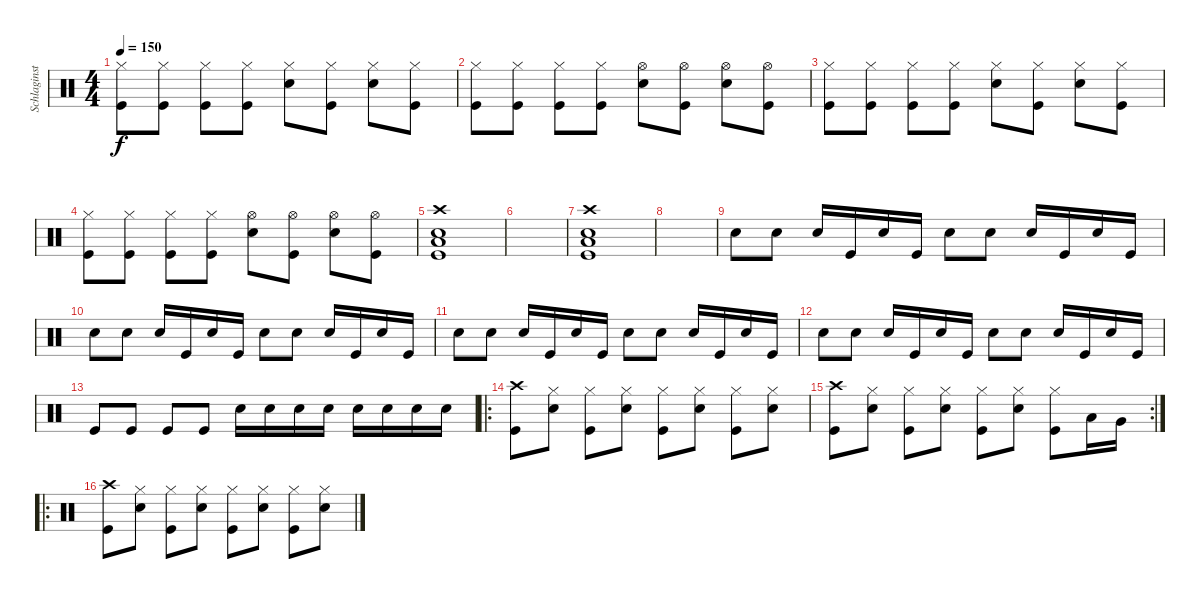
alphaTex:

\track ("Schlaginstrumente - Auswahl" "Schlaginst") {instrument percussion}
\staff {score}
\articulation defaults
\ts (4 4)
\tempo 150
\clef neutral
\ks c
("Hi-Hat (closed)" "Kick (hit)").8{dy f} ("Hi-Hat (closed)" "Kick (hit)").8 ("Hi-Hat (closed)" "Kick (hit)").8 ("Hi-Hat (closed)" "Kick (hit)").8 ("Hi-Hat (closed)" "Electric Snare (hit)").8 ("Hi-Hat (closed)" "Kick (hit)").8 ("Hi-Hat (closed)" "Electric Snare (hit)").8 ("Hi-Hat (closed)" "Kick (hit)").8 |
("Hi-Hat (closed)" "Kick (hit)").8 ("Hi-Hat (closed)" "Kick (hit)").8 ("Hi-Hat (closed)" "Kick (hit)").8 ("Hi-Hat (closed)" "Kick (hit)").8 ("Hi-Hat (open)" "Electric Snare (hit)").8 ("Hi-Hat (open)" "Kick (hit)").8 ("Hi-Hat (open)" "Electric Snare (hit)").8 ("Hi-Hat (open)" "Kick (hit)").8 |
("Hi-Hat (closed)" "Kick (hit)").8 ("Hi-Hat (closed)" "Kick (hit)").8 ("Hi-Hat (closed)" "Kick (hit)").8 ("Hi-Hat (closed)" "Kick (hit)").8 ("Hi-Hat (closed)" "Electric Snare (hit)").8 ("Hi-Hat (closed)" "Kick (hit)").8 ("Hi-Hat (closed)" "Electric Snare (hit)").8 ("Hi-Hat (closed)" "Kick (hit)").8 |
("Hi-Hat (closed)" "Kick (hit)").8 ("Hi-Hat (closed)" "Kick (hit)").8 ("Hi-Hat (closed)" "Kick (hit)").8 ("Hi-Hat (closed)" "Kick (hit)").8 ("Hi-Hat (open)" "Electric Snare (hit)").8 ("Hi-Hat (open)" "Kick (hit)").8 ("Hi-Hat (open)" "Electric Snare (hit)").8 ("Hi-Hat (open)" "Kick (hit)").8 |
("Crash high (hit)" "Low Floor Tom (hit)" "Electric Snare (hit)" "Kick (hit)").1 |
|
("Crash high (hit)" "Low Floor Tom (hit)" "Electric Snare (hit)" "Kick (hit)").1 |
|
"Electric Snare (hit)".8 "Electric Snare (hit)".8 "Electric Snare (hit)".16 "Kick (hit)".16 "Electric Snare (hit)".16 "Kick (hit)".16 "Electric Snare (hit)".8 "Electric Snare (hit)".8 "Electric Snare (hit)".16 "Kick (hit)".16 "Electric Snare (hit)".16 "Kick (hit)".16 |
"Electric Snare (hit)".8 "Electric Snare (hit)".8 "Electric Snare (hit)".16 "Kick (hit)".16 "Electric Snare (hit)".16 "Kick (hit)".16 "Electric Snare (hit)".8 "Electric Snare (hit)".8 "Electric Snare (hit)".16 "Kick (hit)".16 "Electric Snare (hit)".16 "Kick (hit)".16 |
"Electric Snare (hit)".8 "Electric Snare (hit)".8 "Electric Snare (hit)".16 "Kick (hit)".16 "Electric Snare (hit)".16 "Kick (hit)".16 "Electric Snare (hit)".8 "Electric Snare (hit)".8 "Electric Snare (hit)".16 "Kick (hit)".16 "Electric Snare (hit)".16 "Kick (hit)".16 |
"Electric Snare (hit)".8 "Electric Snare (hit)".8 "Electric Snare (hit)".16 "Kick (hit)".16 "Electric Snare (hit)".16 "Kick (hit)".16 "Electric Snare (hit)".8 "Electric Snare (hit)".8 "Electric Snare (hit)".16 "Kick (hit)".16 "Electric Snare (hit)".16 "Kick (hit)".16 |
"Kick (hit)".8 "Kick (hit)".8 "Kick (hit)".8 "Kick (hit)".8 "Electric Snare (hit)".16 "Electric Snare (hit)".16 "Electric Snare (hit)".16 "Electric Snare (hit)".16 "Electric Snare (hit)".16 "Electric Snare (hit)".16 "Electric Snare (hit)".16 "Electric Snare (hit)".16 |
\ro
("Crash high (hit)" "Kick (hit)").8 ("Hi-Hat (closed)" "Electric Snare (hit)").8 ("Hi-Hat (closed)" "Kick (hit)").8 ("Hi-Hat (closed)" "Electric Snare (hit)").8 ("Hi-Hat (closed)" "Kick (hit)").8 ("Hi-Hat (closed)" "Electric Snare (hit)").8 ("Hi-Hat (closed)" "Kick (hit)").8 ("Hi-Hat (closed)" "Electric Snare (hit)").8 |
\rc 2
("Crash high (hit)" "Kick (hit)").8 ("Hi-Hat (closed)" "Electric Snare (hit)").8 ("Hi-Hat (closed)" "Kick (hit)").8 ("Hi-Hat (closed)" "Electric Snare (hit)").8 ("Hi-Hat (closed)" "Kick (hit)").8 ("Hi-Hat (closed)" "Electric Snare (hit)").8 ("Hi-Hat (closed)" "Kick (hit)").8 "Low Tom (hit)".16 "Very Low Tom (hit)".16 |
\ro
("Crash high (hit)" "Kick (hit)").8 ("Hi-Hat (closed)" "Electric Snare (hit)").8 ("Hi-Hat (closed)" "Kick (hit)").8 ("Hi-Hat (closed)" "Electric Snare (hit)").8 ("Hi-Hat (closed)" "Kick (hit)").8 ("Hi-Hat (closed)" "Electric Snare (hit)").8 ("Hi-Hat (closed)" "Kick (hit)").8 ("Hi-Hat (closed)" "Electric Snare (hit)").8
